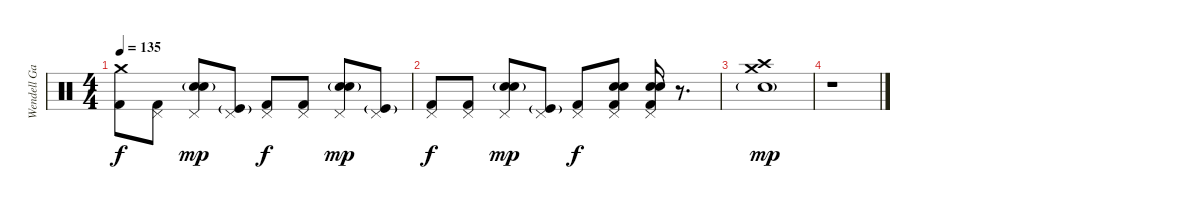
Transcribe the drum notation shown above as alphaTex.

\track ("Wendell Garcia" "Wendell Ga") {instrument percussion}
\staff {score}
\articulation defaults
\ts (4 4)
\tempo 135
\clef neutral
\ks c
("Crash medium (hit)" "Kick (hit) 2").8{dy f} ("Pedal Hi-Hat (hit)" "Kick (hit) 2").8 ("Pedal Hi-Hat (hit)" "Electric Snare (hit)" "Snare (hit) 2"{g}).8{dy mp} ("Pedal Hi-Hat (hit)" "Kick (hit)"{g}).8 ("Pedal Hi-Hat (hit)" "Kick (hit) 2").8{dy f} ("Pedal Hi-Hat (hit)" "Kick (hit) 2").8 ("Pedal Hi-Hat (hit)" "Electric Snare (hit)" "Snare (hit) 2"{g}).8{dy mp} ("Pedal Hi-Hat (hit)" "Kick (hit)"{g}).8 |
("Pedal Hi-Hat (hit)" "Kick (hit) 2").8{dy f} ("Pedal Hi-Hat (hit)" "Kick (hit) 2").8 ("Pedal Hi-Hat (hit)" "Electric Snare (hit)" "Snare (hit) 2"{g}).8{dy mp} ("Pedal Hi-Hat (hit)" "Kick (hit)"{g}).8 ("Pedal Hi-Hat (hit)" "Kick (hit) 2").8{dy f} ("Pedal Hi-Hat (hit)" "Electric Snare (hit)" "Electric Snare (hit)" "Kick (hit) 2").8 ("Pedal Hi-Hat (hit)" "Electric Snare (hit)" "Electric Snare (hit)" "Kick (hit) 2").16 r.8{d} |
("Crash medium (hit)" "Crash high (hit)" "Electric Snare (hit)"{g}).1{dy mp} |
r.1
